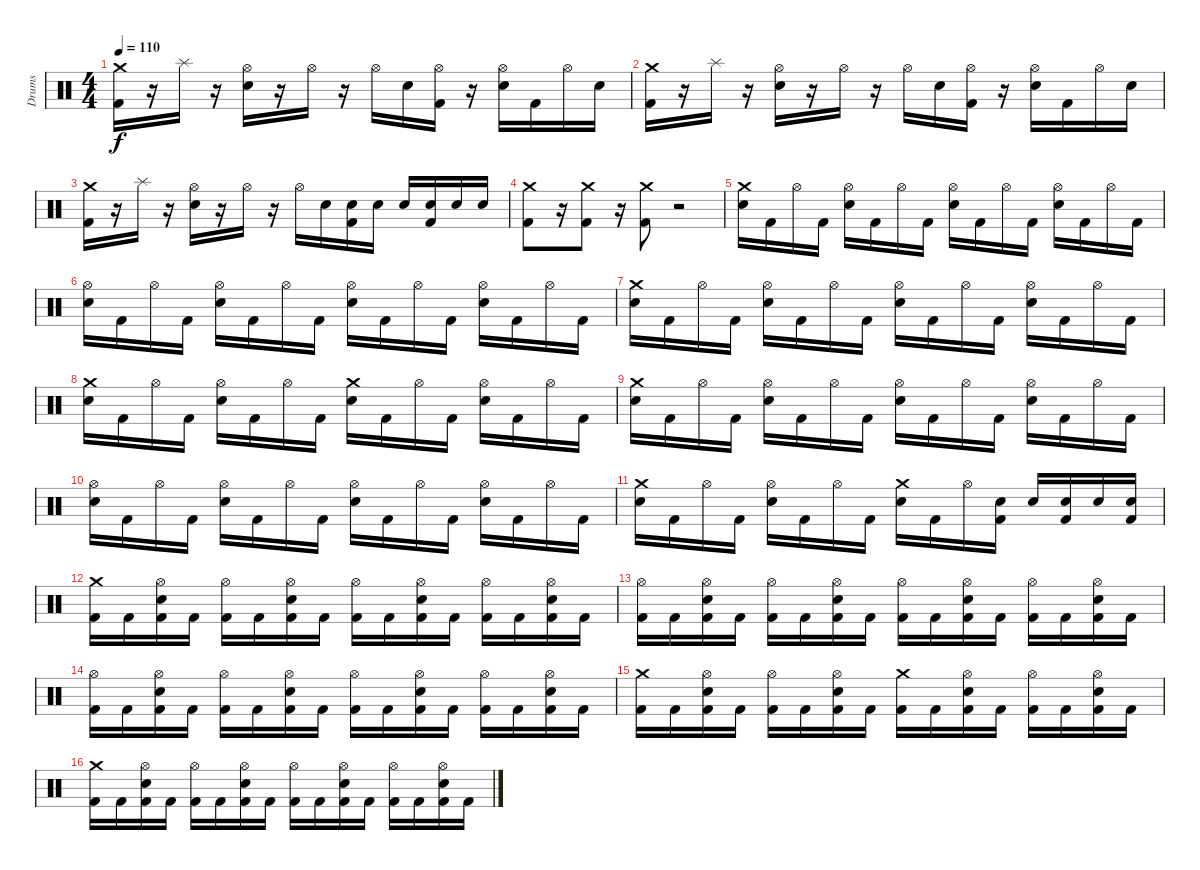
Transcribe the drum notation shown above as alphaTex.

\track ("Drums" "Drums") {instrument percussion}
\staff {score}
\articulation defaults
\ts (4 4)
\tempo 110
\clef neutral
\ks c
("Crash medium (hit)" "Kick (hit) 2").16{dy f} r.16 "Splash (hit)".16 r.16 ("Hi-Hat (open)" "Electric Snare (hit)").16 r.16 "Hi-Hat (open)".16 r.16 "Hi-Hat (open)".16 "Electric Snare (hit)".16 ("Hi-Hat (open)" "Kick (hit) 2").16 r.16 ("Hi-Hat (open)" "Electric Snare (hit)").16 "Kick (hit) 2".16 "Hi-Hat (open)".16 "Electric Snare (hit)".16 |
("Crash medium (hit)" "Kick (hit) 2").16 r.16 "Splash (hit)".16 r.16 ("Hi-Hat (open)" "Electric Snare (hit)").16 r.16 "Hi-Hat (open)".16 r.16 "Hi-Hat (open)".16 "Electric Snare (hit)".16 ("Hi-Hat (open)" "Kick (hit) 2").16 r.16 ("Hi-Hat (open)" "Electric Snare (hit)").16 "Kick (hit) 2".16 "Hi-Hat (open)".16 "Electric Snare (hit)".16 |
("Crash medium (hit)" "Kick (hit) 2").16 r.16 "Splash (hit)".16 r.16 ("Hi-Hat (open)" "Electric Snare (hit)").16 r.16 "Hi-Hat (open)".16 r.16 "Hi-Hat (open)".16 "Electric Snare (hit)".16 ("Electric Snare (hit)" "Kick (hit) 2").16 "Electric Snare (hit)".16 "Electric Snare (hit)".16 ("Electric Snare (hit)" "Kick (hit) 2").16 "Electric Snare (hit)".16 "Electric Snare (hit)".16 |
("Crash medium (hit)" "Kick (hit) 2").8 r.16 ("Crash medium (hit)" "Kick (hit) 2").8 r.16 ("Crash medium (hit)" "Kick (hit) 2").8 r.2 |
("Crash medium (hit)" "Electric Snare (hit)").16 "Kick (hit) 2".16 "Hi-Hat (open)".16 "Kick (hit) 2".16 ("Hi-Hat (open)" "Electric Snare (hit)").16 "Kick (hit) 2".16 "Hi-Hat (open)".16 "Kick (hit) 2".16 ("Hi-Hat (open)" "Electric Snare (hit)").16 "Kick (hit) 2".16 "Hi-Hat (open)".16 "Kick (hit) 2".16 ("Hi-Hat (open)" "Electric Snare (hit)").16 "Kick (hit) 2".16 "Hi-Hat (open)".16 "Kick (hit) 2".16 |
("Hi-Hat (open)" "Electric Snare (hit)").16 "Kick (hit) 2".16 "Hi-Hat (open)".16 "Kick (hit) 2".16 ("Hi-Hat (open)" "Electric Snare (hit)").16 "Kick (hit) 2".16 "Hi-Hat (open)".16 "Kick (hit) 2".16 ("Hi-Hat (open)" "Electric Snare (hit)").16 "Kick (hit) 2".16 "Hi-Hat (open)".16 "Kick (hit) 2".16 ("Hi-Hat (open)" "Electric Snare (hit)").16 "Kick (hit) 2".16 "Hi-Hat (open)".16 "Kick (hit) 2".16 |
("Crash medium (hit)" "Electric Snare (hit)").16 "Kick (hit) 2".16 "Hi-Hat (open)".16 "Kick (hit) 2".16 ("Hi-Hat (open)" "Electric Snare (hit)").16 "Kick (hit) 2".16 "Hi-Hat (open)".16 "Kick (hit) 2".16 ("Hi-Hat (open)" "Electric Snare (hit)").16 "Kick (hit) 2".16 "Hi-Hat (open)".16 "Kick (hit) 2".16 ("Hi-Hat (open)" "Electric Snare (hit)").16 "Kick (hit) 2".16 "Hi-Hat (open)".16 "Kick (hit) 2".16 |
("Crash medium (hit)" "Electric Snare (hit)").16 "Kick (hit) 2".16 "Hi-Hat (open)".16 "Kick (hit) 2".16 ("Hi-Hat (open)" "Electric Snare (hit)").16 "Kick (hit) 2".16 "Hi-Hat (open)".16 "Kick (hit) 2".16 ("Crash medium (hit)" "Electric Snare (hit)").16 "Kick (hit) 2".16 "Hi-Hat (open)".16 "Kick (hit) 2".16 ("Hi-Hat (open)" "Electric Snare (hit)").16 "Kick (hit) 2".16 "Hi-Hat (open)".16 "Kick (hit) 2".16 |
("Crash medium (hit)" "Electric Snare (hit)").16 "Kick (hit) 2".16 "Hi-Hat (open)".16 "Kick (hit) 2".16 ("Hi-Hat (open)" "Electric Snare (hit)").16 "Kick (hit) 2".16 "Hi-Hat (open)".16 "Kick (hit) 2".16 ("Hi-Hat (open)" "Electric Snare (hit)").16 "Kick (hit) 2".16 "Hi-Hat (open)".16 "Kick (hit) 2".16 ("Hi-Hat (open)" "Electric Snare (hit)").16 "Kick (hit) 2".16 "Hi-Hat (open)".16 "Kick (hit) 2".16 |
("Hi-Hat (open)" "Electric Snare (hit)").16 "Kick (hit) 2".16 "Hi-Hat (open)".16 "Kick (hit) 2".16 ("Hi-Hat (open)" "Electric Snare (hit)").16 "Kick (hit) 2".16 "Hi-Hat (open)".16 "Kick (hit) 2".16 ("Hi-Hat (open)" "Electric Snare (hit)").16 "Kick (hit) 2".16 "Hi-Hat (open)".16 "Kick (hit) 2".16 ("Hi-Hat (open)" "Electric Snare (hit)").16 "Kick (hit) 2".16 "Hi-Hat (open)".16 "Kick (hit) 2".16 |
("Crash medium (hit)" "Electric Snare (hit)").16 "Kick (hit) 2".16 "Hi-Hat (open)".16 "Kick (hit) 2".16 ("Hi-Hat (open)" "Electric Snare (hit)").16 "Kick (hit) 2".16 "Hi-Hat (open)".16 "Kick (hit) 2".16 ("Crash medium (hit)" "Electric Snare (hit)").16 "Kick (hit) 2".16 "Hi-Hat (open)".16 ("Electric Snare (hit)" "Kick (hit) 2").16 "Electric Snare (hit)".16 ("Electric Snare (hit)" "Kick (hit) 2").16 "Electric Snare (hit)".16 ("Electric Snare (hit)" "Kick (hit) 2").16 |
("Crash medium (hit)" "Kick (hit) 2").16 "Kick (hit) 2".16 ("Hi-Hat (open)" "Electric Snare (hit)" "Kick (hit) 2").16 "Kick (hit) 2".16 ("Hi-Hat (open)" "Kick (hit) 2").16 "Kick (hit) 2".16 ("Hi-Hat (open)" "Electric Snare (hit)" "Kick (hit) 2").16 "Kick (hit) 2".16 ("Hi-Hat (open)" "Kick (hit) 2").16 "Kick (hit) 2".16 ("Hi-Hat (open)" "Electric Snare (hit)" "Kick (hit) 2").16 "Kick (hit) 2".16 ("Hi-Hat (open)" "Kick (hit) 2").16 "Kick (hit) 2".16 ("Hi-Hat (open)" "Electric Snare (hit)" "Kick (hit) 2").16 "Kick (hit) 2".16 |
("Hi-Hat (open)" "Kick (hit) 2").16 "Kick (hit) 2".16 ("Hi-Hat (open)" "Electric Snare (hit)" "Kick (hit) 2").16 "Kick (hit) 2".16 ("Hi-Hat (open)" "Kick (hit) 2").16 "Kick (hit) 2".16 ("Hi-Hat (open)" "Electric Snare (hit)" "Kick (hit) 2").16 "Kick (hit) 2".16 ("Hi-Hat (open)" "Kick (hit) 2").16 "Kick (hit) 2".16 ("Hi-Hat (open)" "Electric Snare (hit)" "Kick (hit) 2").16 "Kick (hit) 2".16 ("Hi-Hat (open)" "Kick (hit) 2").16 "Kick (hit) 2".16 ("Hi-Hat (open)" "Electric Snare (hit)" "Kick (hit) 2").16 "Kick (hit) 2".16 |
("Hi-Hat (open)" "Kick (hit) 2").16 "Kick (hit) 2".16 ("Hi-Hat (open)" "Electric Snare (hit)" "Kick (hit) 2").16 "Kick (hit) 2".16 ("Hi-Hat (open)" "Kick (hit) 2").16 "Kick (hit) 2".16 ("Hi-Hat (open)" "Electric Snare (hit)" "Kick (hit) 2").16 "Kick (hit) 2".16 ("Hi-Hat (open)" "Kick (hit) 2").16 "Kick (hit) 2".16 ("Hi-Hat (open)" "Electric Snare (hit)" "Kick (hit) 2").16 "Kick (hit) 2".16 ("Hi-Hat (open)" "Kick (hit) 2").16 "Kick (hit) 2".16 ("Hi-Hat (open)" "Electric Snare (hit)" "Kick (hit) 2").16 "Kick (hit) 2".16 |
("Crash medium (hit)" "Kick (hit) 2").16 "Kick (hit) 2".16 ("Hi-Hat (open)" "Electric Snare (hit)" "Kick (hit) 2").16 "Kick (hit) 2".16 ("Hi-Hat (open)" "Kick (hit) 2").16 "Kick (hit) 2".16 ("Hi-Hat (open)" "Electric Snare (hit)" "Kick (hit) 2").16 "Kick (hit) 2".16 ("Crash medium (hit)" "Kick (hit) 2").16 "Kick (hit) 2".16 ("Hi-Hat (open)" "Electric Snare (hit)" "Kick (hit) 2").16 "Kick (hit) 2".16 ("Hi-Hat (open)" "Kick (hit) 2").16 "Kick (hit) 2".16 ("Hi-Hat (open)" "Electric Snare (hit)" "Kick (hit) 2").16 "Kick (hit) 2".16 |
("Crash medium (hit)" "Kick (hit) 2").16 "Kick (hit) 2".16 ("Hi-Hat (open)" "Electric Snare (hit)" "Kick (hit) 2").16 "Kick (hit) 2".16 ("Hi-Hat (open)" "Kick (hit) 2").16 "Kick (hit) 2".16 ("Hi-Hat (open)" "Electric Snare (hit)" "Kick (hit) 2").16 "Kick (hit) 2".16 ("Hi-Hat (open)" "Kick (hit) 2").16 "Kick (hit) 2".16 ("Hi-Hat (open)" "Electric Snare (hit)" "Kick (hit) 2").16 "Kick (hit) 2".16 ("Hi-Hat (open)" "Kick (hit) 2").16 "Kick (hit) 2".16 ("Hi-Hat (open)" "Electric Snare (hit)" "Kick (hit) 2").16 "Kick (hit) 2".16
